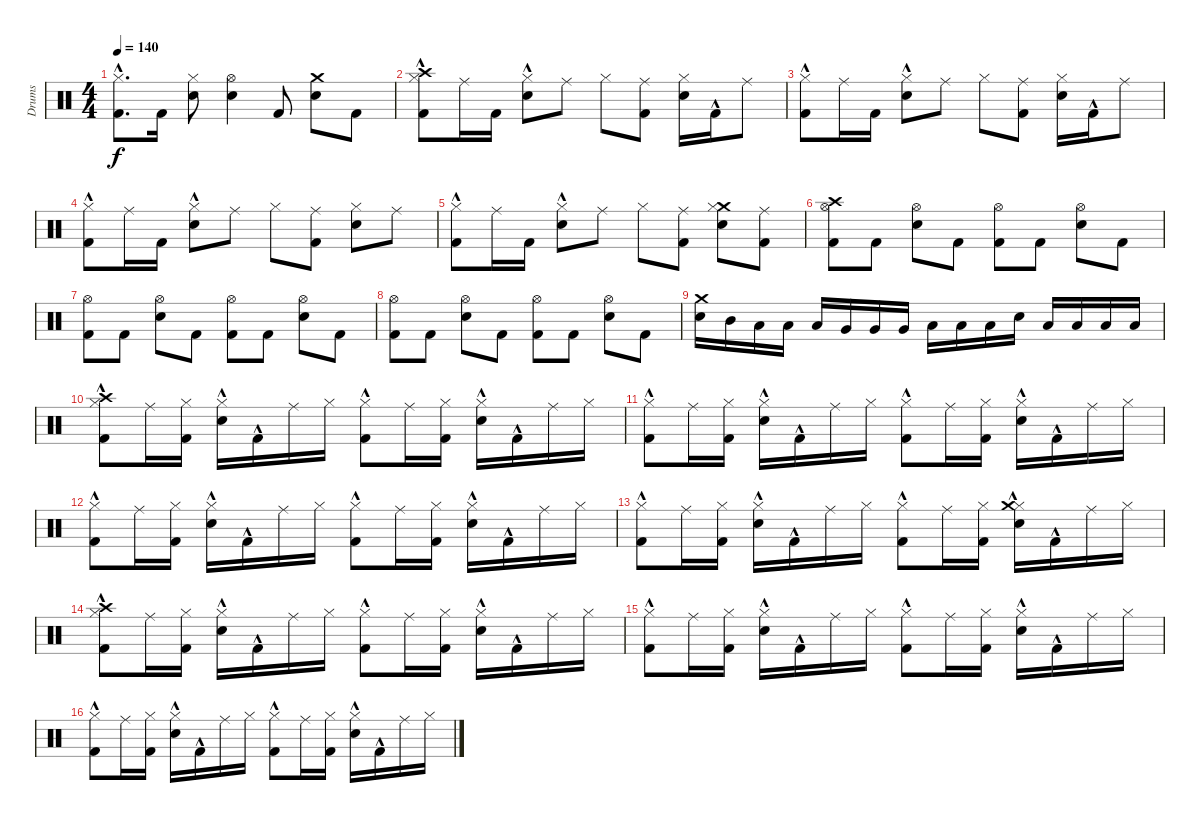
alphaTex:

\track ("Drums" "Drums") {instrument percussion}
\staff {score}
\articulation defaults
\ts (4 4)
\tempo 140
\clef neutral
\ks c
("Hi-Hat (closed)" "Kick (hit) 2"{hac}).8{d dy f} "Kick (hit) 2".16 ("Hi-Hat (closed)" "Electric Snare (hit)").8 ("Electric Snare (hit)" "Hi-Hat (open)").4 "Kick (hit) 2".8 ("Electric Snare (hit)" "Crash medium (hit)").8 "Kick (hit) 2".8 |
("Crash high (hit)" "Hi-Hat (closed)" "Kick (hit) 2"{hac}).8 "Ride (middle)".16 "Kick (hit) 2".16 ("Hi-Hat (closed)" "Electric Snare (hit)"{hac}).8 "Ride (middle)".8 "Hi-Hat (closed)".8 ("Ride (middle)" "Kick (hit) 2").8 ("Hi-Hat (closed)" "Electric Snare (hit)").16 "Kick (hit) 2"{hac}.16 "Ride (middle)".8 |
("Kick (hit) 2"{hac} "Hi-Hat (closed)").8 "Ride (middle)".16 "Kick (hit) 2".16 ("Hi-Hat (closed)" "Electric Snare (hit)"{hac}).8 "Ride (middle)".8 "Hi-Hat (closed)".8 ("Kick (hit) 2" "Ride (middle)").8 ("Electric Snare (hit)" "Hi-Hat (closed)").16 "Kick (hit) 2"{hac}.16 "Ride (middle)".8 |
("Kick (hit) 2"{hac} "Hi-Hat (closed)").8 "Ride (middle)".16 "Kick (hit) 2".16 ("Electric Snare (hit)"{hac} "Hi-Hat (closed)").8 "Ride (middle)".8 "Hi-Hat (closed)".8 ("Kick (hit) 2" "Ride (middle)").8 ("Electric Snare (hit)" "Hi-Hat (closed)").8 "Ride (middle)".8 |
("Hi-Hat (closed)" "Kick (hit) 2"{hac}).8 "Ride (middle)".16 "Kick (hit) 2".16 ("Electric Snare (hit)"{hac} "Hi-Hat (closed)").8 "Ride (middle)".8 "Hi-Hat (closed)".8 ("Kick (hit) 2" "Ride (middle)").8 ("Crash medium (hit)" "Hi-Hat (closed)" "Electric Snare (hit)").8 ("Kick (hit) 2" "Ride (middle)").8 |
("Hi-Hat (open)" "Crash high (hit)" "Kick (hit) 2").8 "Kick (hit) 2".8 ("Electric Snare (hit)" "Hi-Hat (open)").8 "Kick (hit) 2".8 ("Hi-Hat (open)" "Kick (hit) 2").8 "Kick (hit) 2".8 ("Hi-Hat (open)" "Electric Snare (hit)").8 "Kick (hit) 2".8 |
("Kick (hit) 2" "Hi-Hat (open)").8 "Kick (hit) 2".8 ("Electric Snare (hit)" "Hi-Hat (open)").8 "Kick (hit) 2".8 ("Kick (hit) 2" "Hi-Hat (open)").8 "Kick (hit) 2".8 ("Hi-Hat (open)" "Electric Snare (hit)").8 "Kick (hit) 2".8 |
("Kick (hit) 2" "Hi-Hat (open)").8 "Kick (hit) 2".8 ("Electric Snare (hit)" "Hi-Hat (open)").8 "Kick (hit) 2".8 ("Kick (hit) 2" "Hi-Hat (open)").8 "Kick (hit) 2".8 ("Hi-Hat (open)" "Electric Snare (hit)").8 "Kick (hit) 2".8 |
("Crash medium (hit)" "Electric Snare (hit)").16 "Mid Tom (hit)".16 "Low Tom (hit)".16 "Low Tom (hit)".16 "Low Tom (hit)".16 "Very Low Tom (hit)".16 "Very Low Tom (hit)".16 "Very Low Tom (hit)".16 "Low Floor Tom (hit)".16 "Low Floor Tom (hit)".16 "Low Floor Tom (hit)".16 "Electric Snare (hit)".16 "Low Floor Tom (hit)".16 "Low Floor Tom (hit)".16 "Low Floor Tom (hit)".16 "Low Floor Tom (hit)".16 |
("Hi-Hat (closed)"{hac} "Crash high (hit)" "Kick (hit) 2"{hac}).8 "Ride (middle)".16 ("Hi-Hat (closed)" "Kick (hit) 2").16 ("Electric Snare (hit)" "Hi-Hat (closed)"{hac}).16 "Kick (hit) 2"{hac}.16 "Ride (middle)".16 "Hi-Hat (closed)".16 ("Kick (hit) 2"{hac} "Hi-Hat (closed)"{hac}).8 "Ride (middle)".16 ("Kick (hit) 2" "Hi-Hat (closed)").16 ("Electric Snare (hit)" "Hi-Hat (closed)"{hac}).16 "Kick (hit) 2"{hac}.16 "Ride (middle)".16 "Hi-Hat (closed)".16 |
("Kick (hit) 2"{hac} "Hi-Hat (closed)"{hac}).8 "Ride (middle)".16 ("Hi-Hat (closed)" "Kick (hit) 2").16 ("Hi-Hat (closed)"{hac} "Electric Snare (hit)").16 "Kick (hit) 2"{hac}.16 "Ride (middle)".16 "Hi-Hat (closed)".16 ("Hi-Hat (closed)"{hac} "Kick (hit) 2"{hac}).8 "Ride (middle)".16 ("Kick (hit) 2" "Hi-Hat (closed)").16 ("Hi-Hat (closed)"{hac} "Electric Snare (hit)").16 "Kick (hit) 2"{hac}.16 "Ride (middle)".16 "Hi-Hat (closed)".16 |
("Kick (hit) 2"{hac} "Hi-Hat (closed)"{hac}).8 "Ride (middle)".16 ("Hi-Hat (closed)" "Kick (hit) 2").16 ("Electric Snare (hit)" "Hi-Hat (closed)"{hac}).16 "Kick (hit) 2"{hac}.16 "Ride (middle)".16 "Hi-Hat (closed)".16 ("Kick (hit) 2"{hac} "Hi-Hat (closed)"{hac}).8 "Ride (middle)".16 ("Hi-Hat (closed)" "Kick (hit) 2").16 ("Electric Snare (hit)" "Hi-Hat (closed)"{hac}).16 "Kick (hit) 2"{hac}.16 "Ride (middle)".16 "Hi-Hat (closed)".16 |
("Hi-Hat (closed)"{hac} "Kick (hit) 2"{hac}).8 "Ride (middle)".16 ("Hi-Hat (closed)" "Kick (hit) 2").16 ("Electric Snare (hit)" "Hi-Hat (closed)"{hac}).16 "Kick (hit) 2"{hac}.16 "Ride (middle)".16 "Hi-Hat (closed)".16 ("Hi-Hat (closed)"{hac} "Kick (hit) 2"{hac}).8 "Ride (middle)".16 ("Hi-Hat (closed)" "Kick (hit) 2").16 ("Electric Snare (hit)" "Hi-Hat (closed)"{hac} "Crash medium (hit)").16 "Kick (hit) 2"{hac}.16 "Ride (middle)".16 "Hi-Hat (closed)".16 |
("Crash high (hit)" "Kick (hit) 2"{hac} "Hi-Hat (closed)"{hac}).8 "Ride (middle)".16 ("Kick (hit) 2" "Hi-Hat (closed)").16 ("Electric Snare (hit)" "Hi-Hat (closed)"{hac}).16 "Kick (hit) 2"{hac}.16 "Ride (middle)".16 "Hi-Hat (closed)".16 ("Hi-Hat (closed)"{hac} "Kick (hit) 2"{hac}).8 "Ride (middle)".16 ("Kick (hit) 2" "Hi-Hat (closed)").16 ("Hi-Hat (closed)"{hac} "Electric Snare (hit)").16 "Kick (hit) 2"{hac}.16 "Ride (middle)".16 "Hi-Hat (closed)".16 |
("Hi-Hat (closed)"{hac} "Kick (hit) 2"{hac}).8 "Ride (middle)".16 ("Hi-Hat (closed)" "Kick (hit) 2").16 ("Electric Snare (hit)" "Hi-Hat (closed)"{hac}).16 "Kick (hit) 2"{hac}.16 "Ride (middle)".16 "Hi-Hat (closed)".16 ("Kick (hit) 2"{hac} "Hi-Hat (closed)"{hac}).8 "Ride (middle)".16 ("Hi-Hat (closed)" "Kick (hit) 2").16 ("Electric Snare (hit)" "Hi-Hat (closed)"{hac}).16 "Kick (hit) 2"{hac}.16 "Ride (middle)".16 "Hi-Hat (closed)".16 |
("Kick (hit) 2"{hac} "Hi-Hat (closed)"{hac}).8 "Ride (middle)".16 ("Hi-Hat (closed)" "Kick (hit) 2").16 ("Hi-Hat (closed)"{hac} "Electric Snare (hit)").16 "Kick (hit) 2"{hac}.16 "Ride (middle)".16 "Hi-Hat (closed)".16 ("Kick (hit) 2"{hac} "Hi-Hat (closed)"{hac}).8 "Ride (middle)".16 ("Kick (hit) 2" "Hi-Hat (closed)").16 ("Electric Snare (hit)" "Hi-Hat (closed)"{hac}).16 "Kick (hit) 2"{hac}.16 "Ride (middle)".16 "Hi-Hat (closed)".16
